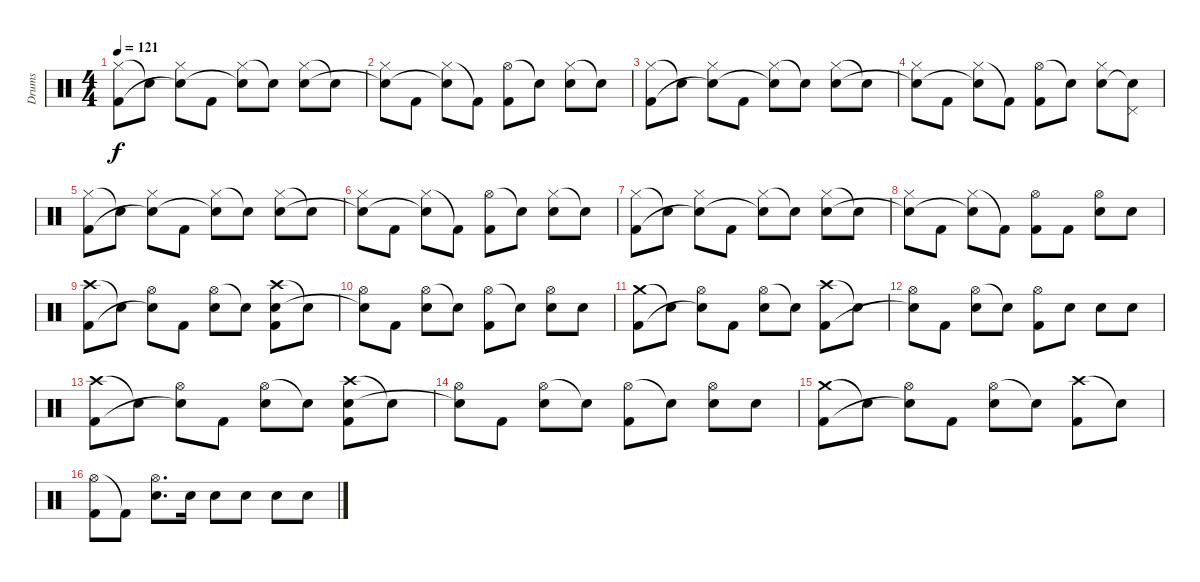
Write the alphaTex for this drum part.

\track ("Drums" "Drums") {instrument percussion}
\staff {score}
\articulation defaults
\ts (4 4)
\tempo 121
\clef neutral
\ks c
("Hi-Hat (closed)" "Kick (hit) 2").8{dy f} "Snare (hit)"{t}.8 ("Hi-Hat (closed)" "Snare (hit)"{t}).8 "Kick (hit) 2".8 ("Hi-Hat (closed)" "Snare (hit)"{t}).8 "Snare (hit)"{t}.8 ("Hi-Hat (closed)" "Electric Snare (hit)").8 "Snare (hit)"{t}.8 |
("Hi-Hat (closed)" "Snare (hit)"{t}).8 "Kick (hit) 2".8 ("Hi-Hat (closed)" "Snare (hit)"{t}).8 "Kick (hit) 2"{t}.8 ("Hi-Hat (open)" "Kick (hit) 2").8 "Snare (hit)"{t}.8 ("Hi-Hat (closed)" "Electric Snare (hit)").8 "Snare (hit)"{t}.8 |
("Hi-Hat (closed)" "Kick (hit) 2").8 "Snare (hit)"{t}.8 ("Hi-Hat (closed)" "Snare (hit)"{t}).8 "Kick (hit) 2".8 ("Hi-Hat (closed)" "Snare (hit)"{t}).8 "Snare (hit)"{t}.8 ("Hi-Hat (closed)" "Electric Snare (hit)").8 "Snare (hit)"{t}.8 |
("Hi-Hat (closed)" "Snare (hit)"{t}).8 "Kick (hit) 2".8 ("Hi-Hat (closed)" "Snare (hit)"{t}).8 "Kick (hit) 2"{t}.8 ("Hi-Hat (open)" "Kick (hit) 2").8 "Snare (hit)"{t}.8 ("Hi-Hat (closed)" "Electric Snare (hit)").8 ("Pedal Hi-Hat (hit)" "Snare (hit)"{t}).8 |
("Hi-Hat (closed)" "Kick (hit) 2").8 "Snare (hit)"{t}.8 ("Hi-Hat (closed)" "Snare (hit)"{t}).8 "Kick (hit) 2".8 ("Hi-Hat (closed)" "Snare (hit)"{t}).8 "Snare (hit)"{t}.8 ("Hi-Hat (closed)" "Electric Snare (hit)").8 "Snare (hit)"{t}.8 |
("Hi-Hat (closed)" "Snare (hit)"{t}).8 "Kick (hit) 2".8 ("Hi-Hat (closed)" "Snare (hit)"{t}).8 "Kick (hit) 2"{t}.8 ("Hi-Hat (open)" "Kick (hit) 2").8 "Snare (hit)"{t}.8 ("Hi-Hat (closed)" "Electric Snare (hit)").8 "Snare (hit)"{t}.8 |
("Hi-Hat (closed)" "Kick (hit) 2").8 "Snare (hit)"{t}.8 ("Hi-Hat (closed)" "Snare (hit)"{t}).8 "Kick (hit) 2".8 ("Hi-Hat (closed)" "Snare (hit)"{t}).8 "Snare (hit)"{t}.8 ("Hi-Hat (closed)" "Electric Snare (hit)").8 "Snare (hit)"{t}.8 |
("Hi-Hat (closed)" "Snare (hit)"{t}).8 "Kick (hit) 2".8 ("Hi-Hat (closed)" "Snare (hit)"{t}).8 "Kick (hit) 2"{t}.8 ("Hi-Hat (open)" "Kick (hit) 2").8 "Kick (hit) 2".8 ("Hi-Hat (open)" "Electric Snare (hit)").8 "Electric Snare (hit)".8 |
("Crash high (hit)" "Kick (hit) 2").8 "Snare (hit)"{t}.8 ("Hi-Hat (open)" "Snare (hit)"{t}).8 "Kick (hit) 2".8 ("Hi-Hat (open)" "Electric Snare (hit)").8 "Snare (hit)"{t}.8 ("Crash high (hit)" "Electric Snare (hit)" "Kick (hit) 2").8 "Snare (hit)"{t}.8 |
("Hi-Hat (open)" "Snare (hit)"{t}).8 "Kick (hit) 2".8 ("Hi-Hat (open)" "Electric Snare (hit)").8 "Snare (hit)"{t}.8 ("Hi-Hat (open)" "Kick (hit) 2").8 "Snare (hit)"{t}.8 ("Hi-Hat (open)" "Electric Snare (hit)").8 "Electric Snare (hit)".8 |
("Crash medium (hit)" "Kick (hit) 2").8 "Snare (hit)"{t}.8 ("Hi-Hat (open)" "Snare (hit)"{t}).8 "Kick (hit) 2".8 ("Hi-Hat (open)" "Electric Snare (hit)").8 "Snare (hit)"{t}.8 ("Crash high (hit)" "Kick (hit) 2").8 "Snare (hit)"{t}.8 |
("Hi-Hat (open)" "Snare (hit)"{t}).8 "Kick (hit) 2".8 ("Hi-Hat (open)" "Electric Snare (hit)").8 "Snare (hit)"{t}.8 ("Hi-Hat (open)" "Kick (hit) 2").8 "Electric Snare (hit)".8 "Electric Snare (hit)".8 "Electric Snare (hit)".8 |
("Crash high (hit)" "Kick (hit) 2").8 "Snare (hit)"{t}.8 ("Hi-Hat (open)" "Snare (hit)"{t}).8 "Kick (hit) 2".8 ("Hi-Hat (open)" "Electric Snare (hit)").8 "Snare (hit)"{t}.8 ("Crash high (hit)" "Electric Snare (hit)" "Kick (hit) 2").8 "Snare (hit)"{t}.8 |
("Hi-Hat (open)" "Snare (hit)"{t}).8 "Kick (hit) 2".8 ("Hi-Hat (open)" "Electric Snare (hit)").8 "Snare (hit)"{t}.8 ("Hi-Hat (open)" "Kick (hit) 2").8 "Snare (hit)"{t}.8 ("Hi-Hat (open)" "Electric Snare (hit)").8 "Electric Snare (hit)".8 |
("Crash medium (hit)" "Kick (hit) 2").8 "Snare (hit)"{t}.8 ("Hi-Hat (open)" "Snare (hit)"{t}).8 "Kick (hit) 2".8 ("Hi-Hat (open)" "Electric Snare (hit)").8 "Snare (hit)"{t}.8 ("Crash high (hit)" "Kick (hit) 2").8 "Snare (hit)"{t}.8 |
("Hi-Hat (open)" "Kick (hit) 2").8 "Kick (hit) 2"{t}.8 ("Hi-Hat (open)" "Electric Snare (hit)").8{d} "Electric Snare (hit)".16 "Electric Snare (hit)".8 "Electric Snare (hit)".8 "Electric Snare (hit)".8 "Electric Snare (hit)".8
